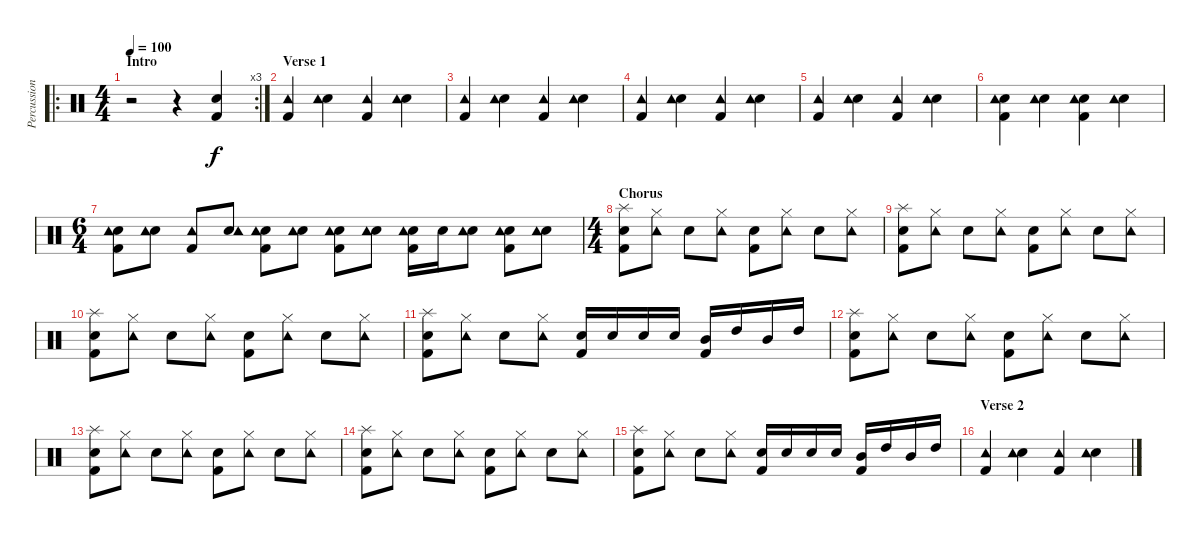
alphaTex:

\track ("Percussion" "Percussion") {instrument percussion}
\staff {score}
\articulation defaults
\ro
\rc 3
\ts (4 4)
\section ("" "Intro")
\tempo 100
\clef neutral
\ks c
r.2{dy f} r.4 ("Electric Snare (hit)" "Kick (hit) 2").4 |
\section ("" "Verse 1")
("Tambourine (hit)" "Kick (hit) 2").4 ("Electric Snare (hit)" "Tambourine (hit)").4 ("Tambourine (hit)" "Kick (hit) 2").4 ("Electric Snare (hit)" "Tambourine (hit)").4 |
("Tambourine (hit)" "Kick (hit) 2").4 ("Electric Snare (hit)" "Tambourine (hit)").4 ("Tambourine (hit)" "Kick (hit) 2").4 ("Electric Snare (hit)" "Tambourine (hit)").4 |
("Tambourine (hit)" "Kick (hit) 2").4 ("Electric Snare (hit)" "Tambourine (hit)").4 ("Tambourine (hit)" "Kick (hit) 2").4 ("Electric Snare (hit)" "Tambourine (hit)").4 |
("Tambourine (hit)" "Kick (hit) 2").4 ("Electric Snare (hit)" "Tambourine (hit)").4 ("Tambourine (hit)" "Kick (hit) 2").4 ("Electric Snare (hit)" "Tambourine (hit)").4 |
("Electric Snare (hit)" "Tambourine (hit)" "Kick (hit) 2").4 ("Electric Snare (hit)" "Tambourine (hit)").4 ("Electric Snare (hit)" "Tambourine (hit)" "Kick (hit) 2").4 ("Electric Snare (hit)" "Tambourine (hit)").4 |
\ts (6 4)
("Electric Snare (hit)" "Tambourine (hit)" "Kick (hit) 2").8 ("Electric Snare (hit)" "Tambourine (hit)").8 ("Tambourine (hit)" "Kick (hit) 2").8 ("Electric Snare (hit)" "Tambourine (hit)").8 ("Electric Snare (hit)" "Tambourine (hit)" "Kick (hit) 2").8 ("Electric Snare (hit)" "Tambourine (hit)").8 ("Electric Snare (hit)" "Tambourine (hit)" "Kick (hit) 2").8 ("Electric Snare (hit)" "Tambourine (hit)").8 ("Electric Snare (hit)" "Tambourine (hit)" "Kick (hit) 2").16 "Electric Snare (hit)".16 ("Electric Snare (hit)" "Tambourine (hit)").8 ("Electric Snare (hit)" "Tambourine (hit)" "Kick (hit) 2").8 ("Electric Snare (hit)" "Tambourine (hit)").8 |
\ts (4 4)
\section ("" "Chorus")
("Splash (hit)" "Electric Snare (hit)" "Kick (hit) 2").8 ("Hi-Hat (closed)" "Tambourine (hit)").8 "Electric Snare (hit)".8 ("Hi-Hat (closed)" "Tambourine (hit)").8 ("Electric Snare (hit)" "Kick (hit) 2").8 ("Hi-Hat (closed)" "Tambourine (hit)").8 "Electric Snare (hit)".8 ("Hi-Hat (closed)" "Tambourine (hit)").8 |
("Splash (hit)" "Electric Snare (hit)" "Kick (hit) 2").8 ("Hi-Hat (closed)" "Tambourine (hit)").8 "Electric Snare (hit)".8 ("Hi-Hat (closed)" "Tambourine (hit)").8 ("Electric Snare (hit)" "Kick (hit) 2").8 ("Hi-Hat (closed)" "Tambourine (hit)").8 "Electric Snare (hit)".8 ("Hi-Hat (closed)" "Tambourine (hit)").8 |
("Splash (hit)" "Electric Snare (hit)" "Kick (hit) 2").8 ("Hi-Hat (closed)" "Tambourine (hit)").8 "Electric Snare (hit)".8 ("Hi-Hat (closed)" "Tambourine (hit)").8 ("Electric Snare (hit)" "Kick (hit) 2").8 ("Hi-Hat (closed)" "Tambourine (hit)").8 "Electric Snare (hit)".8 ("Hi-Hat (closed)" "Tambourine (hit)").8 |
("Splash (hit)" "Electric Snare (hit)" "Kick (hit) 2").8 ("Hi-Hat (closed)" "Tambourine (hit)").8 "Electric Snare (hit)".8 ("Hi-Hat (closed)" "Tambourine (hit)").8 ("Electric Snare (hit)" "Kick (hit) 2").16 "Electric Snare (hit)".16 "Electric Snare (hit)".16 "Electric Snare (hit)".16 ("Mid Tom (hit)" "Kick (hit) 2").16 "High Tom (hit)".16 "Mid Tom (hit)".16 "High Tom (hit)".16 |
("Splash (hit)" "Electric Snare (hit)" "Kick (hit) 2").8 ("Hi-Hat (closed)" "Tambourine (hit)").8 "Electric Snare (hit)".8 ("Hi-Hat (closed)" "Tambourine (hit)").8 ("Electric Snare (hit)" "Kick (hit) 2").8 ("Hi-Hat (closed)" "Tambourine (hit)").8 "Electric Snare (hit)".8 ("Hi-Hat (closed)" "Tambourine (hit)").8 |
("Splash (hit)" "Electric Snare (hit)" "Kick (hit) 2").8 ("Hi-Hat (closed)" "Tambourine (hit)").8 "Electric Snare (hit)".8 ("Hi-Hat (closed)" "Tambourine (hit)").8 ("Electric Snare (hit)" "Kick (hit) 2").8 ("Hi-Hat (closed)" "Tambourine (hit)").8 "Electric Snare (hit)".8 ("Hi-Hat (closed)" "Tambourine (hit)").8 |
("Splash (hit)" "Electric Snare (hit)" "Kick (hit) 2").8 ("Hi-Hat (closed)" "Tambourine (hit)").8 "Electric Snare (hit)".8 ("Hi-Hat (closed)" "Tambourine (hit)").8 ("Electric Snare (hit)" "Kick (hit) 2").8 ("Hi-Hat (closed)" "Tambourine (hit)").8 "Electric Snare (hit)".8 ("Hi-Hat (closed)" "Tambourine (hit)").8 |
("Splash (hit)" "Electric Snare (hit)" "Kick (hit) 2").8 ("Hi-Hat (closed)" "Tambourine (hit)").8 "Electric Snare (hit)".8 ("Hi-Hat (closed)" "Tambourine (hit)").8 ("Electric Snare (hit)" "Kick (hit) 2").16 "Electric Snare (hit)".16 "Electric Snare (hit)".16 "Electric Snare (hit)".16 ("Mid Tom (hit)" "Kick (hit) 2").16 "High Tom (hit)".16 "Mid Tom (hit)".16 "High Tom (hit)".16 |
\section ("" "Verse 2")
("Tambourine (hit)" "Kick (hit) 2").4 ("Electric Snare (hit)" "Tambourine (hit)").4 ("Tambourine (hit)" "Kick (hit) 2").4 ("Electric Snare (hit)" "Tambourine (hit)").4
